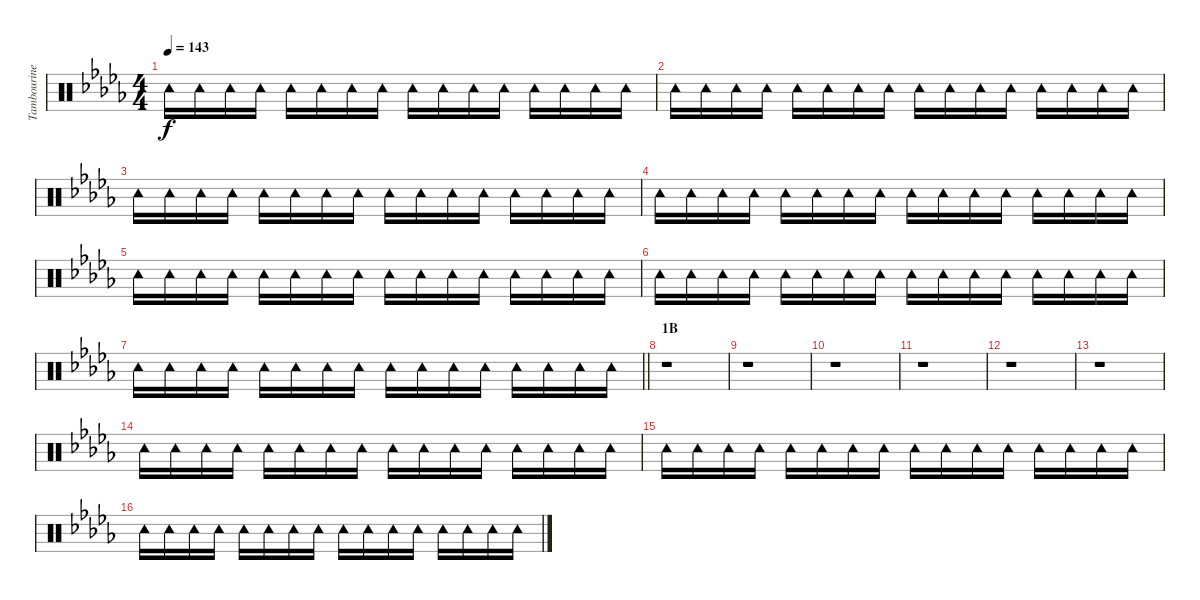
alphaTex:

\track ("Tambourine" "Tambourine") {instrument percussion}
\staff {score}
\articulation defaults
\ts (4 4)
\tempo 143
\clef neutral
\ks db "Tambourine (hit)".16{dy f} "Tambourine (hit)".16 "Tambourine (hit)".16 "Tambourine (hit)".16 "Tambourine (hit)".16 "Tambourine (hit)".16 "Tambourine (hit)".16 "Tambourine (hit)".16 "Tambourine (hit)".16 "Tambourine (hit)".16 "Tambourine (hit)".16 "Tambourine (hit)".16 "Tambourine (hit)".16 "Tambourine (hit)".16 "Tambourine (hit)".16 "Tambourine (hit)".16
|
"Tambourine (hit)".16 "Tambourine (hit)".16 "Tambourine (hit)".16 "Tambourine (hit)".16 "Tambourine (hit)".16 "Tambourine (hit)".16 "Tambourine (hit)".16 "Tambourine (hit)".16 "Tambourine (hit)".16 "Tambourine (hit)".16 "Tambourine (hit)".16 "Tambourine (hit)".16 "Tambourine (hit)".16 "Tambourine (hit)".16 "Tambourine (hit)".16 "Tambourine (hit)".16 |
"Tambourine (hit)".16 "Tambourine (hit)".16 "Tambourine (hit)".16 "Tambourine (hit)".16 "Tambourine (hit)".16 "Tambourine (hit)".16 "Tambourine (hit)".16 "Tambourine (hit)".16 "Tambourine (hit)".16 "Tambourine (hit)".16 "Tambourine (hit)".16 "Tambourine (hit)".16 "Tambourine (hit)".16 "Tambourine (hit)".16 "Tambourine (hit)".16 "Tambourine (hit)".16 |
"Tambourine (hit)".16 "Tambourine (hit)".16 "Tambourine (hit)".16 "Tambourine (hit)".16 "Tambourine (hit)".16 "Tambourine (hit)".16 "Tambourine (hit)".16 "Tambourine (hit)".16 "Tambourine (hit)".16 "Tambourine (hit)".16 "Tambourine (hit)".16 "Tambourine (hit)".16 "Tambourine (hit)".16 "Tambourine (hit)".16 "Tambourine (hit)".16 "Tambourine (hit)".16 |
"Tambourine (hit)".16 "Tambourine (hit)".16 "Tambourine (hit)".16 "Tambourine (hit)".16 "Tambourine (hit)".16 "Tambourine (hit)".16 "Tambourine (hit)".16 "Tambourine (hit)".16 "Tambourine (hit)".16 "Tambourine (hit)".16 "Tambourine (hit)".16 "Tambourine (hit)".16 "Tambourine (hit)".16 "Tambourine (hit)".16 "Tambourine (hit)".16 "Tambourine (hit)".16 |
"Tambourine (hit)".16 "Tambourine (hit)".16 "Tambourine (hit)".16 "Tambourine (hit)".16 "Tambourine (hit)".16 "Tambourine (hit)".16 "Tambourine (hit)".16 "Tambourine (hit)".16 "Tambourine (hit)".16 "Tambourine (hit)".16 "Tambourine (hit)".16 "Tambourine (hit)".16 "Tambourine (hit)".16 "Tambourine (hit)".16 "Tambourine (hit)".16 "Tambourine (hit)".16 |
\barLineRight lightlight "Tambourine (hit)".16 "Tambourine (hit)".16 "Tambourine (hit)".16 "Tambourine (hit)".16 "Tambourine (hit)".16 "Tambourine (hit)".16 "Tambourine (hit)".16 "Tambourine (hit)".16 "Tambourine (hit)".16 "Tambourine (hit)".16 "Tambourine (hit)".16 "Tambourine (hit)".16 "Tambourine (hit)".16 "Tambourine (hit)".16 "Tambourine (hit)".16 "Tambourine (hit)".16
|
\section ("" "1B")
r.1 |
r.1 |
r.1 |
r.1 |
r.1 |
r.1 |
"Tambourine (hit)".16 "Tambourine (hit)".16 "Tambourine (hit)".16 "Tambourine (hit)".16 "Tambourine (hit)".16 "Tambourine (hit)".16 "Tambourine (hit)".16 "Tambourine (hit)".16 "Tambourine (hit)".16 "Tambourine (hit)".16 "Tambourine (hit)".16 "Tambourine (hit)".16 "Tambourine (hit)".16 "Tambourine (hit)".16 "Tambourine (hit)".16 "Tambourine (hit)".16 |
"Tambourine (hit)".16 "Tambourine (hit)".16 "Tambourine (hit)".16 "Tambourine (hit)".16 "Tambourine (hit)".16 "Tambourine (hit)".16 "Tambourine (hit)".16 "Tambourine (hit)".16 "Tambourine (hit)".16 "Tambourine (hit)".16 "Tambourine (hit)".16 "Tambourine (hit)".16 "Tambourine (hit)".16 "Tambourine (hit)".16 "Tambourine (hit)".16 "Tambourine (hit)".16 |
"Tambourine (hit)".16 "Tambourine (hit)".16 "Tambourine (hit)".16 "Tambourine (hit)".16 "Tambourine (hit)".16 "Tambourine (hit)".16 "Tambourine (hit)".16 "Tambourine (hit)".16 "Tambourine (hit)".16 "Tambourine (hit)".16 "Tambourine (hit)".16 "Tambourine (hit)".16 "Tambourine (hit)".16 "Tambourine (hit)".16 "Tambourine (hit)".16 "Tambourine (hit)".16
